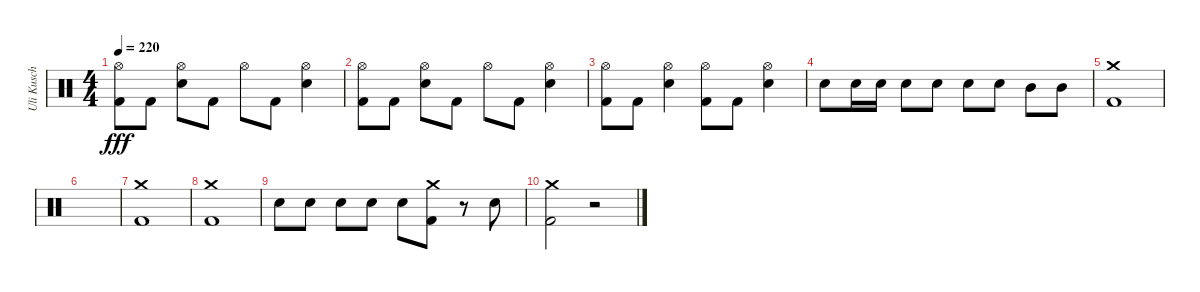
\track ("Uli Kusch" "Uli Kusch") {instrument percussion}
\staff {score}
\articulation defaults
\ts (4 4)
\tempo 220
\clef neutral
\ks c
("Hi-Hat (open)" "Kick (hit) 2").8{dy fff} "Kick (hit) 2".8 ("Hi-Hat (open)" "Snare (hit) 2").8 "Kick (hit) 2".8 "Hi-Hat (open)".8 "Kick (hit) 2".8 ("Hi-Hat (open)" "Snare (hit) 2").4 |
("Hi-Hat (open)" "Kick (hit) 2").8 "Kick (hit) 2".8 ("Hi-Hat (open)" "Snare (hit) 2").8 "Kick (hit) 2".8 "Hi-Hat (open)".8 "Kick (hit) 2".8 ("Hi-Hat (open)" "Snare (hit) 2").4 |
("Hi-Hat (open)" "Kick (hit) 2").8 "Kick (hit) 2".8 ("Hi-Hat (open)" "Snare (hit) 2").4 ("Hi-Hat (open)" "Kick (hit) 2").8 "Kick (hit) 2".8 ("Hi-Hat (open)" "Snare (hit) 2").4 |
"Snare (hit) 2".8 "Snare (hit) 2".16 "Snare (hit) 2".16 "Snare (hit) 2".8 "Snare (hit) 2".8 "Snare (hit) 2".8 "Snare (hit) 2".8 "Mid Tom (hit)".8 "Mid Tom (hit)".8 |
("Crash medium (hit)" "Kick (hit) 2").1 |
|
("Crash medium (hit)" "Kick (hit) 2").1 |
("Crash medium (hit)" "Kick (hit) 2").1 |
"Snare (hit) 2".8 "Snare (hit) 2".8 "Snare (hit) 2".8 "Snare (hit) 2".8 "Snare (hit) 2".8 ("Crash medium (hit)" "Kick (hit) 2").8 r.8 "Snare (hit) 2".8 |
("Crash medium (hit)" "Kick (hit) 2").2 r.2
